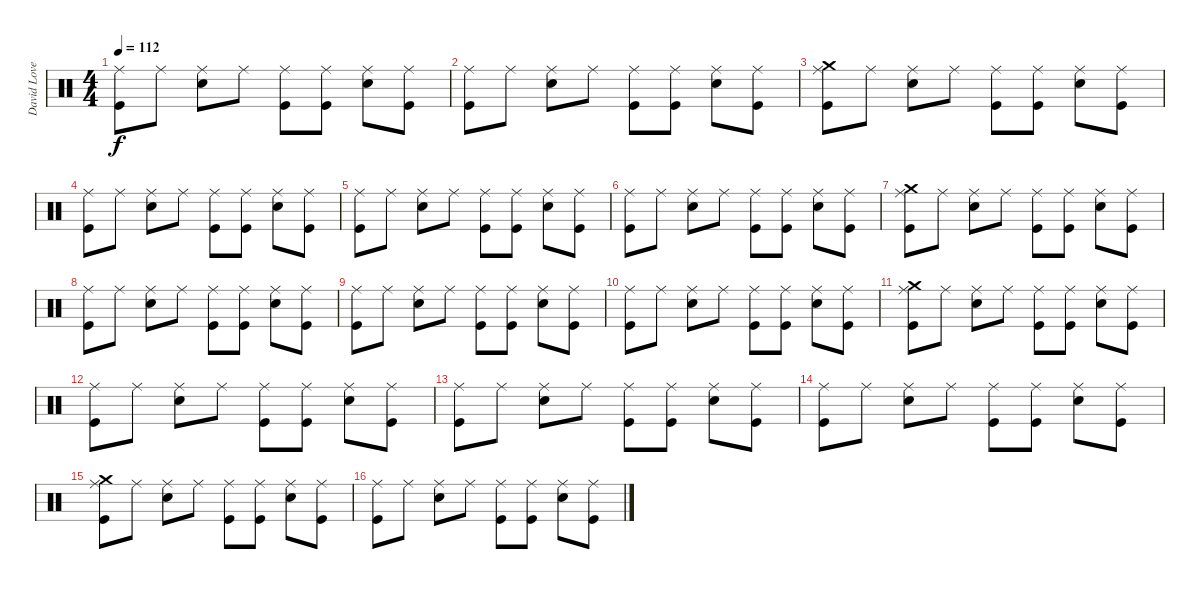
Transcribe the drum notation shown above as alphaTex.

\track ("David Lovering" "David Love") {instrument percussion}
\staff {score}
\articulation defaults
\ts (4 4)
\tempo 112
\clef neutral
\ks c
("Ride (middle)" "Kick (hit)").8{dy f} "Ride (middle)".8 ("Ride (middle)" "Snare (hit) 2").8 "Ride (middle)".8 ("Ride (middle)" "Kick (hit)").8 ("Ride (middle)" "Kick (hit)").8 ("Ride (middle)" "Snare (hit) 2").8 ("Ride (middle)" "Kick (hit)").8 |
("Ride (middle)" "Kick (hit)").8 "Ride (middle)".8 ("Ride (middle)" "Snare (hit) 2").8 "Ride (middle)".8 ("Ride (middle)" "Kick (hit)").8 ("Ride (middle)" "Kick (hit)").8 ("Ride (middle)" "Snare (hit) 2").8 ("Ride (middle)" "Kick (hit)").8 |
("Ride (middle)" "Crash medium (hit)" "Kick (hit)").8 "Ride (middle)".8 ("Ride (middle)" "Snare (hit) 2").8 "Ride (middle)".8 ("Ride (middle)" "Kick (hit)").8 ("Ride (middle)" "Kick (hit)").8 ("Ride (middle)" "Snare (hit) 2").8 ("Ride (middle)" "Kick (hit)").8 |
("Ride (middle)" "Kick (hit)").8 "Ride (middle)".8 ("Ride (middle)" "Snare (hit) 2").8 "Ride (middle)".8 ("Ride (middle)" "Kick (hit)").8 ("Ride (middle)" "Kick (hit)").8 ("Ride (middle)" "Snare (hit) 2").8 ("Ride (middle)" "Kick (hit)").8 |
("Ride (middle)" "Kick (hit)").8 "Ride (middle)".8 ("Ride (middle)" "Snare (hit) 2").8 "Ride (middle)".8 ("Ride (middle)" "Kick (hit)").8 ("Ride (middle)" "Kick (hit)").8 ("Ride (middle)" "Snare (hit) 2").8 ("Ride (middle)" "Kick (hit)").8 |
("Ride (middle)" "Kick (hit)").8 "Ride (middle)".8 ("Ride (middle)" "Snare (hit) 2").8 "Ride (middle)".8 ("Ride (middle)" "Kick (hit)").8 ("Ride (middle)" "Kick (hit)").8 ("Ride (middle)" "Snare (hit) 2").8 ("Ride (middle)" "Kick (hit)").8 |
\section ("" "")
("Ride (middle)" "Crash medium (hit)" "Kick (hit)").8 "Ride (middle)".8 ("Ride (middle)" "Snare (hit) 2").8 "Ride (middle)".8 ("Ride (middle)" "Kick (hit)").8 ("Ride (middle)" "Kick (hit)").8 ("Ride (middle)" "Snare (hit) 2").8 ("Ride (middle)" "Kick (hit)").8 |
("Ride (middle)" "Kick (hit)").8 "Ride (middle)".8 ("Ride (middle)" "Snare (hit) 2").8 "Ride (middle)".8 ("Ride (middle)" "Kick (hit)").8 ("Ride (middle)" "Kick (hit)").8 ("Ride (middle)" "Snare (hit) 2").8 ("Ride (middle)" "Kick (hit)").8 |
("Ride (middle)" "Kick (hit)").8 "Ride (middle)".8 ("Ride (middle)" "Snare (hit) 2").8 "Ride (middle)".8 ("Ride (middle)" "Kick (hit)").8 ("Ride (middle)" "Kick (hit)").8 ("Ride (middle)" "Snare (hit) 2").8 ("Ride (middle)" "Kick (hit)").8 |
("Ride (middle)" "Kick (hit)").8 "Ride (middle)".8 ("Ride (middle)" "Snare (hit) 2").8 "Ride (middle)".8 ("Ride (middle)" "Kick (hit)").8 ("Ride (middle)" "Kick (hit)").8 ("Ride (middle)" "Snare (hit) 2").8 ("Ride (middle)" "Kick (hit)").8 |
("Ride (middle)" "Crash medium (hit)" "Kick (hit)").8 "Ride (middle)".8 ("Ride (middle)" "Snare (hit) 2").8 "Ride (middle)".8 ("Ride (middle)" "Kick (hit)").8 ("Ride (middle)" "Kick (hit)").8 ("Ride (middle)" "Snare (hit) 2").8 ("Ride (middle)" "Kick (hit)").8 |
("Ride (middle)" "Kick (hit)").8 "Ride (middle)".8 ("Ride (middle)" "Snare (hit) 2").8 "Ride (middle)".8 ("Ride (middle)" "Kick (hit)").8 ("Ride (middle)" "Kick (hit)").8 ("Ride (middle)" "Snare (hit) 2").8 ("Ride (middle)" "Kick (hit)").8 |
("Ride (middle)" "Kick (hit)").8 "Ride (middle)".8 ("Ride (middle)" "Snare (hit) 2").8 "Ride (middle)".8 ("Ride (middle)" "Kick (hit)").8 ("Ride (middle)" "Kick (hit)").8 ("Ride (middle)" "Snare (hit) 2").8 ("Ride (middle)" "Kick (hit)").8 |
("Ride (middle)" "Kick (hit)").8 "Ride (middle)".8 ("Ride (middle)" "Snare (hit) 2").8 "Ride (middle)".8 ("Ride (middle)" "Kick (hit)").8 ("Ride (middle)" "Kick (hit)").8 ("Ride (middle)" "Snare (hit) 2").8 ("Ride (middle)" "Kick (hit)").8 |
("Ride (middle)" "Crash medium (hit)" "Kick (hit)").8 "Ride (middle)".8 ("Ride (middle)" "Snare (hit) 2").8 "Ride (middle)".8 ("Ride (middle)" "Kick (hit)").8 ("Ride (middle)" "Kick (hit)").8 ("Ride (middle)" "Snare (hit) 2").8 ("Ride (middle)" "Kick (hit)").8 |
("Ride (middle)" "Kick (hit)").8 "Ride (middle)".8 ("Ride (middle)" "Snare (hit) 2").8 "Ride (middle)".8 ("Ride (middle)" "Kick (hit)").8 ("Ride (middle)" "Kick (hit)").8 ("Ride (middle)" "Snare (hit) 2").8 ("Ride (middle)" "Kick (hit)").8
